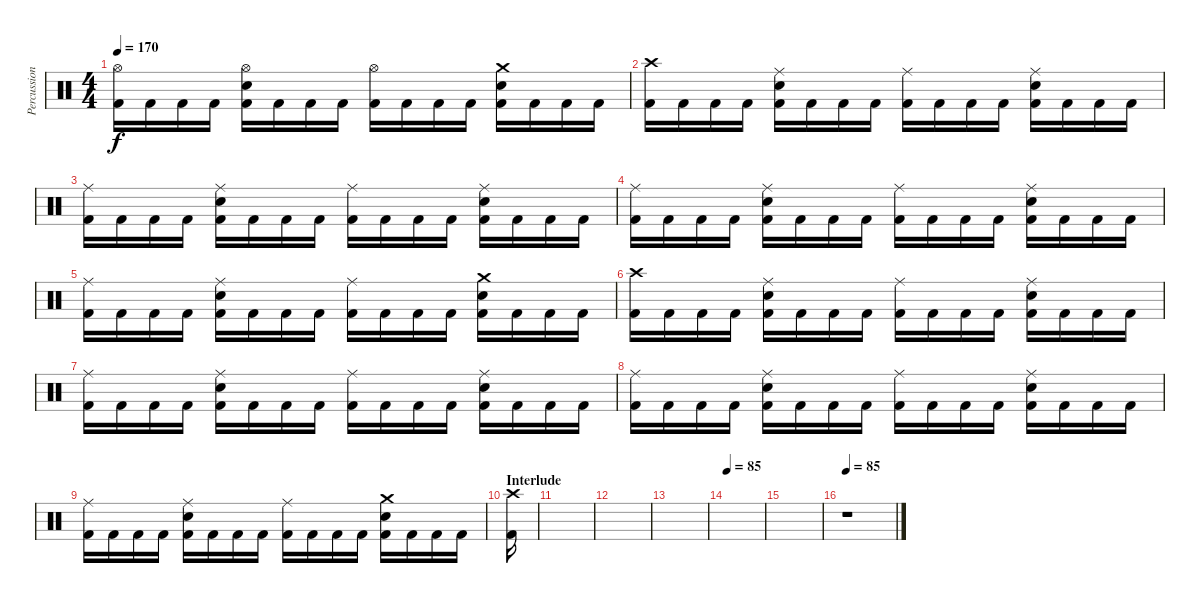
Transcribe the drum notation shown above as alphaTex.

\track ("Percussion" "Percussion") {instrument percussion}
\staff {score}
\articulation defaults
\ts (4 4)
\tempo 170
\clef neutral
\ks c
("Hi-Hat (open)" "Kick (hit) 2").16{dy f} "Kick (hit) 2".16 "Kick (hit) 2".16 "Kick (hit) 2".16 ("Hi-Hat (open)" "Electric Snare (hit)" "Kick (hit) 2").16 "Kick (hit) 2".16 "Kick (hit) 2".16 "Kick (hit) 2".16 ("Hi-Hat (open)" "Kick (hit) 2").16 "Kick (hit) 2".16 "Kick (hit) 2".16 "Kick (hit) 2".16 ("Crash medium (hit)" "Electric Snare (hit)" "Kick (hit) 2").16 "Kick (hit) 2".16 "Kick (hit) 2".16 "Kick (hit) 2".16 |
("Crash high (hit)" "Kick (hit) 2").16 "Kick (hit) 2".16 "Kick (hit) 2".16 "Kick (hit) 2".16 ("Ride (middle)" "Electric Snare (hit)" "Kick (hit) 2").16 "Kick (hit) 2".16 "Kick (hit) 2".16 "Kick (hit) 2".16 ("Ride (middle)" "Kick (hit) 2").16 "Kick (hit) 2".16 "Kick (hit) 2".16 "Kick (hit) 2".16 ("Ride (middle)" "Electric Snare (hit)" "Kick (hit) 2").16 "Kick (hit) 2".16 "Kick (hit) 2".16 "Kick (hit) 2".16 |
("Ride (middle)" "Kick (hit) 2").16 "Kick (hit) 2".16 "Kick (hit) 2".16 "Kick (hit) 2".16 ("Ride (middle)" "Electric Snare (hit)" "Kick (hit) 2").16 "Kick (hit) 2".16 "Kick (hit) 2".16 "Kick (hit) 2".16 ("Ride (middle)" "Kick (hit) 2").16 "Kick (hit) 2".16 "Kick (hit) 2".16 "Kick (hit) 2".16 ("Ride (middle)" "Electric Snare (hit)" "Kick (hit) 2").16 "Kick (hit) 2".16 "Kick (hit) 2".16 "Kick (hit) 2".16 |
("Ride (middle)" "Kick (hit) 2").16 "Kick (hit) 2".16 "Kick (hit) 2".16 "Kick (hit) 2".16 ("Ride (middle)" "Electric Snare (hit)" "Kick (hit) 2").16 "Kick (hit) 2".16 "Kick (hit) 2".16 "Kick (hit) 2".16 ("Ride (middle)" "Kick (hit) 2").16 "Kick (hit) 2".16 "Kick (hit) 2".16 "Kick (hit) 2".16 ("Ride (middle)" "Electric Snare (hit)" "Kick (hit) 2").16 "Kick (hit) 2".16 "Kick (hit) 2".16 "Kick (hit) 2".16 |
("Ride (middle)" "Kick (hit) 2").16 "Kick (hit) 2".16 "Kick (hit) 2".16 "Kick (hit) 2".16 ("Ride (middle)" "Electric Snare (hit)" "Kick (hit) 2").16 "Kick (hit) 2".16 "Kick (hit) 2".16 "Kick (hit) 2".16 ("Ride (middle)" "Kick (hit) 2").16 "Kick (hit) 2".16 "Kick (hit) 2".16 "Kick (hit) 2".16 ("Crash medium (hit)" "Electric Snare (hit)" "Kick (hit) 2").16 "Kick (hit) 2".16 "Kick (hit) 2".16 "Kick (hit) 2".16 |
("Crash high (hit)" "Kick (hit) 2").16 "Kick (hit) 2".16 "Kick (hit) 2".16 "Kick (hit) 2".16 ("Ride (middle)" "Electric Snare (hit)" "Kick (hit) 2").16 "Kick (hit) 2".16 "Kick (hit) 2".16 "Kick (hit) 2".16 ("Ride (middle)" "Kick (hit) 2").16 "Kick (hit) 2".16 "Kick (hit) 2".16 "Kick (hit) 2".16 ("Ride (middle)" "Electric Snare (hit)" "Kick (hit) 2").16 "Kick (hit) 2".16 "Kick (hit) 2".16 "Kick (hit) 2".16 |
("Ride (middle)" "Kick (hit) 2").16 "Kick (hit) 2".16 "Kick (hit) 2".16 "Kick (hit) 2".16 ("Ride (middle)" "Electric Snare (hit)" "Kick (hit) 2").16 "Kick (hit) 2".16 "Kick (hit) 2".16 "Kick (hit) 2".16 ("Ride (middle)" "Kick (hit) 2").16 "Kick (hit) 2".16 "Kick (hit) 2".16 "Kick (hit) 2".16 ("Ride (middle)" "Electric Snare (hit)" "Kick (hit) 2").16 "Kick (hit) 2".16 "Kick (hit) 2".16 "Kick (hit) 2".16 |
("Ride (middle)" "Kick (hit) 2").16 "Kick (hit) 2".16 "Kick (hit) 2".16 "Kick (hit) 2".16 ("Ride (middle)" "Electric Snare (hit)" "Kick (hit) 2").16 "Kick (hit) 2".16 "Kick (hit) 2".16 "Kick (hit) 2".16 ("Ride (middle)" "Kick (hit) 2").16 "Kick (hit) 2".16 "Kick (hit) 2".16 "Kick (hit) 2".16 ("Ride (middle)" "Electric Snare (hit)" "Kick (hit) 2").16 "Kick (hit) 2".16 "Kick (hit) 2".16 "Kick (hit) 2".16 |
("Ride (middle)" "Kick (hit) 2").16 "Kick (hit) 2".16 "Kick (hit) 2".16 "Kick (hit) 2".16 ("Ride (middle)" "Electric Snare (hit)" "Kick (hit) 2").16 "Kick (hit) 2".16 "Kick (hit) 2".16 "Kick (hit) 2".16 ("Ride (middle)" "Kick (hit) 2").16 "Kick (hit) 2".16 "Kick (hit) 2".16 "Kick (hit) 2".16 ("Crash medium (hit)" "Electric Snare (hit)" "Kick (hit) 2").16 "Kick (hit) 2".16 "Kick (hit) 2".16 "Kick (hit) 2".16 |
\section ("" "Interlude")
("Crash high (hit)" "Kick (hit) 2").16 |
|
|
|
\tempo 85
|
|
\tempo 85
r.1
